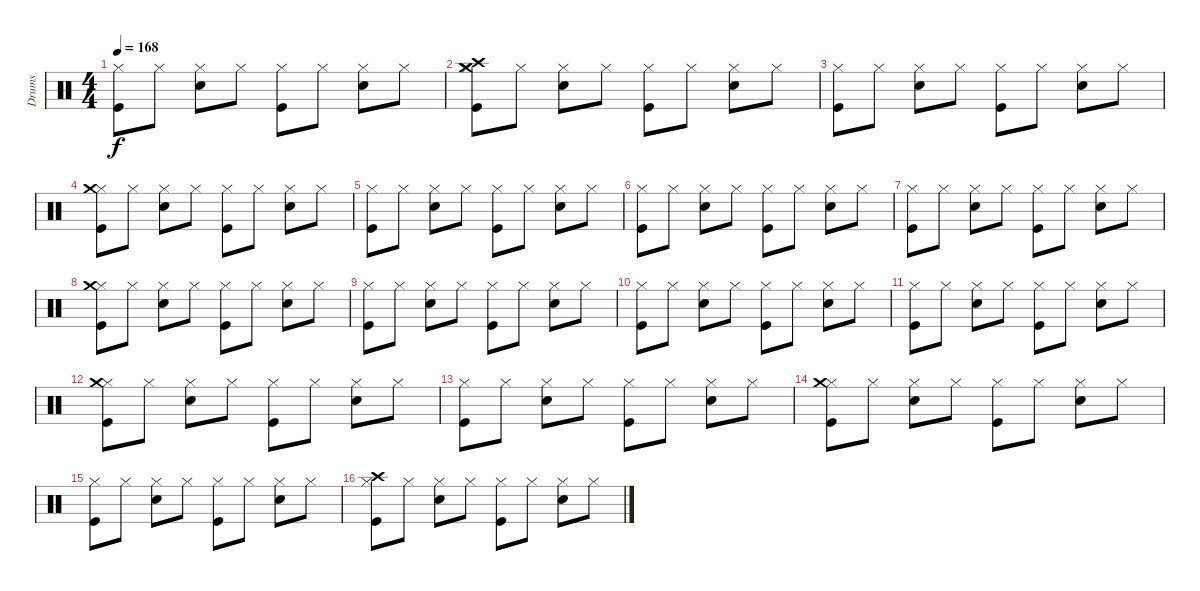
\track ("Drums" "Drums") {instrument percussion}
\staff {score}
\articulation defaults
\ts (4 4)
\tempo 168
\clef neutral
\ks c
("Kick (hit)" "Hi-Hat (closed)").8{dy f} "Hi-Hat (closed)".8 ("Snare (hit) 2" "Hi-Hat (closed)").8 "Hi-Hat (closed)".8 ("Kick (hit)" "Hi-Hat (closed)").8 "Hi-Hat (closed)".8 ("Snare (hit) 2" "Hi-Hat (closed)").8 "Hi-Hat (closed)".8 |
("Kick (hit)" "Hi-Hat (closed)" "Crash high (hit)" "Crash medium (hit)").8 "Hi-Hat (closed)".8 ("Snare (hit) 2" "Hi-Hat (closed)").8 "Hi-Hat (closed)".8 ("Kick (hit)" "Hi-Hat (closed)").8 "Hi-Hat (closed)".8 ("Snare (hit) 2" "Hi-Hat (closed)").8 "Hi-Hat (closed)".8 |
("Kick (hit)" "Hi-Hat (closed)").8 "Hi-Hat (closed)".8 ("Snare (hit) 2" "Hi-Hat (closed)").8 "Hi-Hat (closed)".8 ("Kick (hit)" "Hi-Hat (closed)").8 "Hi-Hat (closed)".8 ("Snare (hit) 2" "Hi-Hat (closed)").8 "Hi-Hat (closed)".8 |
("Kick (hit)" "Hi-Hat (closed)" "Crash medium (hit)").8 "Hi-Hat (closed)".8 ("Snare (hit) 2" "Hi-Hat (closed)").8 "Hi-Hat (closed)".8 ("Kick (hit)" "Hi-Hat (closed)").8 "Hi-Hat (closed)".8 ("Snare (hit) 2" "Hi-Hat (closed)").8 "Hi-Hat (closed)".8 |
("Kick (hit)" "Hi-Hat (closed)").8 "Hi-Hat (closed)".8 ("Snare (hit) 2" "Hi-Hat (closed)").8 "Hi-Hat (closed)".8 ("Kick (hit)" "Hi-Hat (closed)").8 "Hi-Hat (closed)".8 ("Snare (hit) 2" "Hi-Hat (closed)").8 "Hi-Hat (closed)".8 |
("Kick (hit)" "Hi-Hat (closed)").8 "Hi-Hat (closed)".8 ("Snare (hit) 2" "Hi-Hat (closed)").8 "Hi-Hat (closed)".8 ("Kick (hit)" "Hi-Hat (closed)").8 "Hi-Hat (closed)".8 ("Snare (hit) 2" "Hi-Hat (closed)").8 "Hi-Hat (closed)".8 |
("Kick (hit)" "Hi-Hat (closed)").8 "Hi-Hat (closed)".8 ("Snare (hit) 2" "Hi-Hat (closed)").8 "Hi-Hat (closed)".8 ("Kick (hit)" "Hi-Hat (closed)").8 "Hi-Hat (closed)".8 ("Snare (hit) 2" "Hi-Hat (closed)").8 "Hi-Hat (closed)".8 |
("Kick (hit)" "Hi-Hat (closed)" "Crash medium (hit)").8 "Hi-Hat (closed)".8 ("Snare (hit) 2" "Hi-Hat (closed)").8 "Hi-Hat (closed)".8 ("Kick (hit)" "Hi-Hat (closed)").8 "Hi-Hat (closed)".8 ("Snare (hit) 2" "Hi-Hat (closed)").8 "Hi-Hat (closed)".8 |
("Kick (hit)" "Hi-Hat (closed)").8 "Hi-Hat (closed)".8 ("Snare (hit) 2" "Hi-Hat (closed)").8 "Hi-Hat (closed)".8 ("Kick (hit)" "Hi-Hat (closed)").8 "Hi-Hat (closed)".8 ("Snare (hit) 2" "Hi-Hat (closed)").8 "Hi-Hat (closed)".8 |
("Kick (hit)" "Hi-Hat (closed)").8 "Hi-Hat (closed)".8 ("Snare (hit) 2" "Hi-Hat (closed)").8 "Hi-Hat (closed)".8 ("Kick (hit)" "Hi-Hat (closed)").8 "Hi-Hat (closed)".8 ("Snare (hit) 2" "Hi-Hat (closed)").8 "Hi-Hat (closed)".8 |
("Kick (hit)" "Hi-Hat (closed)").8 "Hi-Hat (closed)".8 ("Snare (hit) 2" "Hi-Hat (closed)").8 "Hi-Hat (closed)".8 ("Kick (hit)" "Hi-Hat (closed)").8 "Hi-Hat (closed)".8 ("Snare (hit) 2" "Hi-Hat (closed)").8 "Hi-Hat (closed)".8 |
("Kick (hit)" "Hi-Hat (closed)" "Crash medium (hit)").8 "Hi-Hat (closed)".8 ("Snare (hit) 2" "Hi-Hat (closed)").8 "Hi-Hat (closed)".8 ("Kick (hit)" "Hi-Hat (closed)").8 "Hi-Hat (closed)".8 ("Snare (hit) 2" "Hi-Hat (closed)").8 "Hi-Hat (closed)".8 |
("Kick (hit)" "Hi-Hat (closed)").8 "Hi-Hat (closed)".8 ("Snare (hit) 2" "Hi-Hat (closed)").8 "Hi-Hat (closed)".8 ("Kick (hit)" "Hi-Hat (closed)").8 "Hi-Hat (closed)".8 ("Snare (hit) 2" "Hi-Hat (closed)").8 "Hi-Hat (closed)".8 |
("Kick (hit)" "Hi-Hat (closed)" "Crash medium (hit)").8 "Hi-Hat (closed)".8 ("Snare (hit) 2" "Hi-Hat (closed)").8 "Hi-Hat (closed)".8 ("Kick (hit)" "Hi-Hat (closed)").8 "Hi-Hat (closed)".8 ("Snare (hit) 2" "Hi-Hat (closed)").8 "Hi-Hat (closed)".8 |
("Kick (hit)" "Hi-Hat (closed)").8 "Hi-Hat (closed)".8 ("Snare (hit) 2" "Hi-Hat (closed)").8 "Hi-Hat (closed)".8 ("Kick (hit)" "Hi-Hat (closed)").8 "Hi-Hat (closed)".8 ("Snare (hit) 2" "Hi-Hat (closed)").8 "Hi-Hat (closed)".8 |
("Kick (hit)" "Hi-Hat (closed)" "Crash high (hit)").8 "Hi-Hat (closed)".8 ("Snare (hit) 2" "Hi-Hat (closed)").8 "Hi-Hat (closed)".8 ("Kick (hit)" "Hi-Hat (closed)").8 "Hi-Hat (closed)".8 ("Snare (hit) 2" "Hi-Hat (closed)").8 "Hi-Hat (closed)".8
